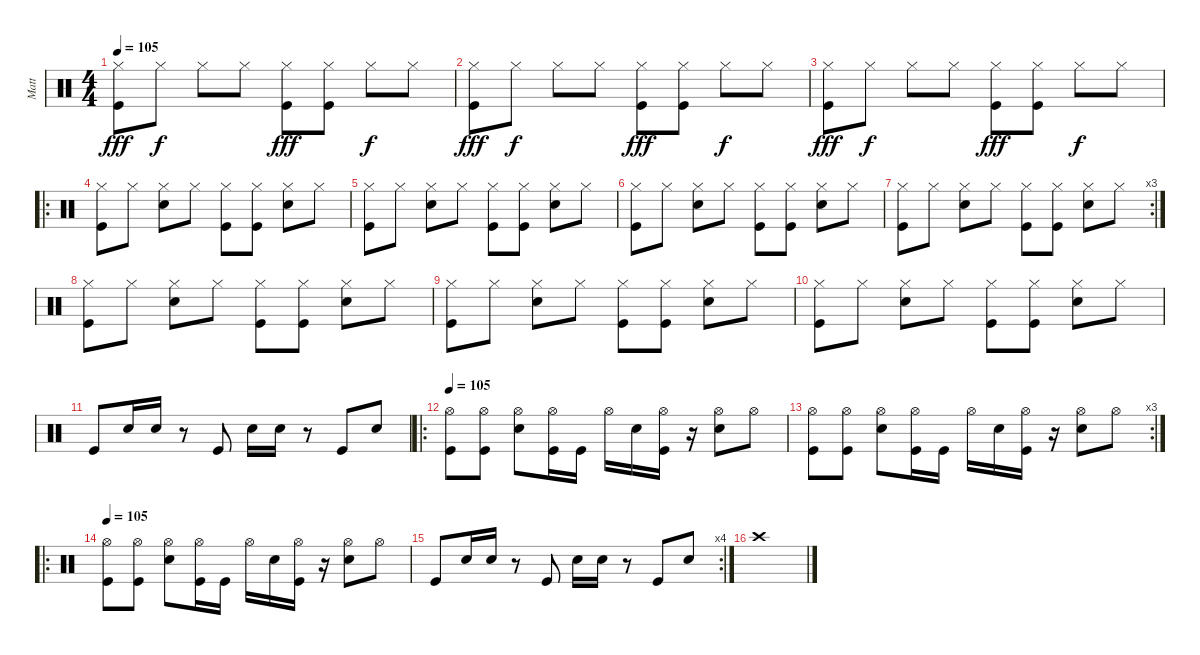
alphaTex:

\track ("Matt" "Matt") {instrument percussion}
\staff {score}
\articulation defaults
\ts (4 4)
\tempo 105
\clef neutral
\ks c
("Hi-Hat (closed)" "Kick (hit)").8{dy fff} "Hi-Hat (closed)".8{dy f} "Hi-Hat (closed)".8 "Hi-Hat (closed)".8 ("Hi-Hat (closed)" "Kick (hit)").8{dy fff} ("Hi-Hat (closed)" "Kick (hit)").8 "Hi-Hat (closed)".8{dy f} "Hi-Hat (closed)".8 |
("Hi-Hat (closed)" "Kick (hit)").8{dy fff} "Hi-Hat (closed)".8{dy f} "Hi-Hat (closed)".8 "Hi-Hat (closed)".8 ("Hi-Hat (closed)" "Kick (hit)").8{dy fff} ("Hi-Hat (closed)" "Kick (hit)").8 "Hi-Hat (closed)".8{dy f} "Hi-Hat (closed)".8 |
("Hi-Hat (closed)" "Kick (hit)").8{dy fff} "Hi-Hat (closed)".8{dy f} "Hi-Hat (closed)".8 "Hi-Hat (closed)".8 ("Hi-Hat (closed)" "Kick (hit)").8{dy fff} ("Hi-Hat (closed)" "Kick (hit)").8 "Hi-Hat (closed)".8{dy f} "Hi-Hat (closed)".8 |
\ro
("Hi-Hat (closed)" "Kick (hit)").8 "Hi-Hat (closed)".8 ("Hi-Hat (closed)" "Electric Snare (hit)").8 "Hi-Hat (closed)".8 ("Hi-Hat (closed)" "Kick (hit)").8 ("Hi-Hat (closed)" "Kick (hit)").8 ("Hi-Hat (closed)" "Electric Snare (hit)").8 "Hi-Hat (closed)".8 |
("Hi-Hat (closed)" "Kick (hit)").8 "Hi-Hat (closed)".8 ("Hi-Hat (closed)" "Electric Snare (hit)").8 "Hi-Hat (closed)".8 ("Hi-Hat (closed)" "Kick (hit)").8 ("Hi-Hat (closed)" "Kick (hit)").8 ("Hi-Hat (closed)" "Electric Snare (hit)").8 "Hi-Hat (closed)".8 |
("Hi-Hat (closed)" "Kick (hit)").8 "Hi-Hat (closed)".8 ("Hi-Hat (closed)" "Electric Snare (hit)").8 "Hi-Hat (closed)".8 ("Hi-Hat (closed)" "Kick (hit)").8 ("Hi-Hat (closed)" "Kick (hit)").8 ("Hi-Hat (closed)" "Electric Snare (hit)").8 "Hi-Hat (closed)".8 |
\rc 3
("Hi-Hat (closed)" "Kick (hit)").8 "Hi-Hat (closed)".8 ("Hi-Hat (closed)" "Electric Snare (hit)").8 "Hi-Hat (closed)".8 ("Hi-Hat (closed)" "Kick (hit)").8 ("Hi-Hat (closed)" "Kick (hit)").8 ("Hi-Hat (closed)" "Electric Snare (hit)").8 "Hi-Hat (closed)".8 |
("Hi-Hat (closed)" "Kick (hit)").8 "Hi-Hat (closed)".8 ("Hi-Hat (closed)" "Electric Snare (hit)").8 "Hi-Hat (closed)".8 ("Hi-Hat (closed)" "Kick (hit)").8 ("Hi-Hat (closed)" "Kick (hit)").8 ("Hi-Hat (closed)" "Electric Snare (hit)").8 "Hi-Hat (closed)".8 |
("Hi-Hat (closed)" "Kick (hit)").8 "Hi-Hat (closed)".8 ("Hi-Hat (closed)" "Electric Snare (hit)").8 "Hi-Hat (closed)".8 ("Hi-Hat (closed)" "Kick (hit)").8 ("Hi-Hat (closed)" "Kick (hit)").8 ("Hi-Hat (closed)" "Electric Snare (hit)").8 "Hi-Hat (closed)".8 |
("Hi-Hat (closed)" "Kick (hit)").8 "Hi-Hat (closed)".8 ("Hi-Hat (closed)" "Electric Snare (hit)").8 "Hi-Hat (closed)".8 ("Hi-Hat (closed)" "Kick (hit)").8 ("Hi-Hat (closed)" "Kick (hit)").8 ("Hi-Hat (closed)" "Electric Snare (hit)").8 "Hi-Hat (closed)".8 |
"Kick (hit)".8 "Snare (hit) 2".16 "Snare (hit) 2".16 r.8 "Kick (hit)".8 "Snare (hit) 2".16 "Snare (hit) 2".16 r.8 "Kick (hit)".8 "Snare (hit) 2".8 |
\ro
\tempo 105
("Hi-Hat (open)" "Kick (hit)").8 ("Hi-Hat (open)" "Kick (hit)").8 ("Hi-Hat (open)" "Snare (hit) 2").8 ("Hi-Hat (open)" "Kick (hit)").16 "Kick (hit)".16 "Hi-Hat (open)".16 "Snare (hit) 2".16 ("Hi-Hat (open)" "Kick (hit)").16 r.16 ("Hi-Hat (open)" "Snare (hit) 2").8 "Hi-Hat (open)".8 |
\rc 3
("Hi-Hat (open)" "Kick (hit)").8 ("Hi-Hat (open)" "Kick (hit)").8 ("Hi-Hat (open)" "Snare (hit) 2").8 ("Hi-Hat (open)" "Kick (hit)").16 "Kick (hit)".16 "Hi-Hat (open)".16 "Snare (hit) 2".16 ("Hi-Hat (open)" "Kick (hit)").16 r.16 ("Hi-Hat (open)" "Snare (hit) 2").8 "Hi-Hat (open)".8 |
\ro
\tempo 105
("Hi-Hat (open)" "Kick (hit)").8 ("Hi-Hat (open)" "Kick (hit)").8 ("Hi-Hat (open)" "Snare (hit) 2").8 ("Hi-Hat (open)" "Kick (hit)").16 "Kick (hit)".16 "Hi-Hat (open)".16 "Snare (hit) 2".16 ("Hi-Hat (open)" "Kick (hit)").16 r.16 ("Hi-Hat (open)" "Snare (hit) 2").8 "Hi-Hat (open)".8 |
\rc 4 "Kick (hit)".8 "Snare (hit) 2".16 "Snare (hit) 2".16
r.8 "Kick (hit)".8 "Snare (hit) 2".16 "Snare (hit) 2".16 r.8 "Kick (hit)".8 "Snare (hit) 2".8 |
"Crash high (hit)".1
